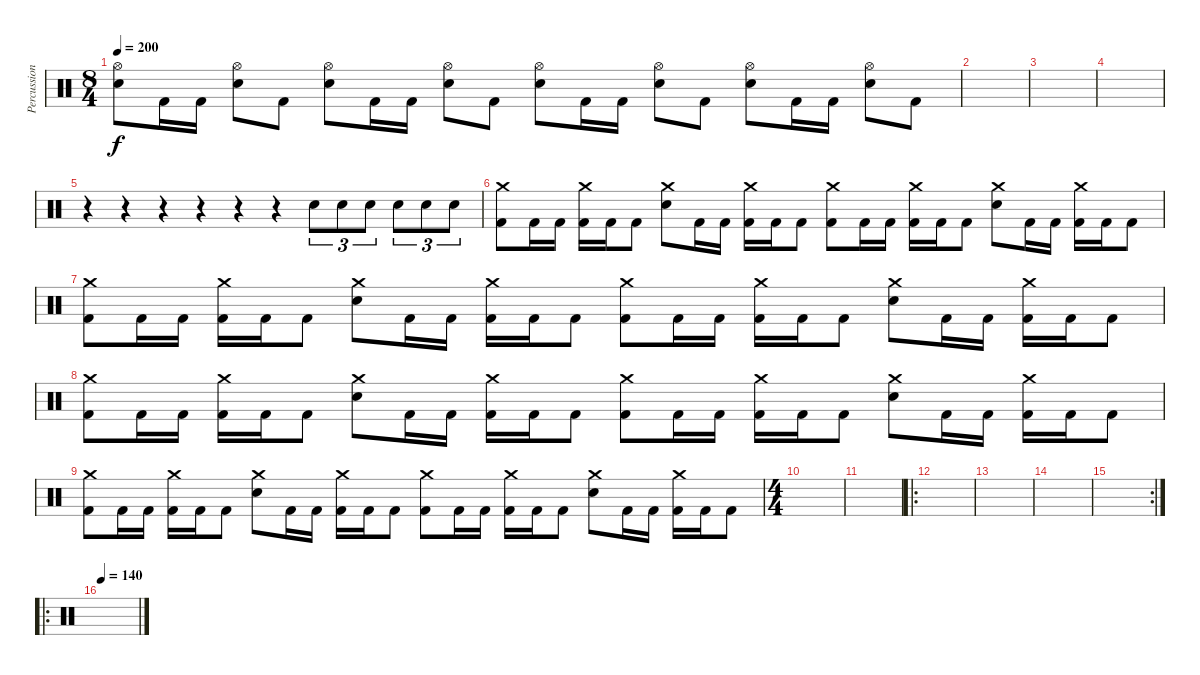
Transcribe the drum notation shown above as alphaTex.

\track ("Percussion" "Percussion") {instrument percussion}
\staff {score}
\articulation defaults
\ts (8 4)
\tempo 200
\clef neutral
\ks c
("Hi-Hat (open)" "Electric Snare (hit)").8{dy f} "Kick (hit) 2".16 "Kick (hit) 2".16 ("Hi-Hat (open)" "Electric Snare (hit)").8 "Kick (hit) 2".8 ("Hi-Hat (open)" "Electric Snare (hit)").8 "Kick (hit) 2".16 "Kick (hit) 2".16 ("Hi-Hat (open)" "Electric Snare (hit)").8 "Kick (hit) 2".8 ("Hi-Hat (open)" "Electric Snare (hit)").8 "Kick (hit) 2".16 "Kick (hit) 2".16 ("Hi-Hat (open)" "Electric Snare (hit)").8 "Kick (hit) 2".8 ("Hi-Hat (open)" "Electric Snare (hit)").8 "Kick (hit) 2".16 "Kick (hit) 2".16 ("Hi-Hat (open)" "Electric Snare (hit)").8 "Kick (hit) 2".8 |
|
|
|
r.4 r.4 r.4 r.4 r.4 r.4 "Electric Snare (hit)".8{tu (3 2)} "Electric Snare (hit)".8{tu (3 2)} "Electric Snare (hit)".8{tu (3 2)} "Electric Snare (hit)".8{tu (3 2)} "Electric Snare (hit)".8{tu (3 2)} "Electric Snare (hit)".8{tu (3 2)} |
("Crash medium (hit)" "Kick (hit) 2").8 "Kick (hit) 2".16 "Kick (hit) 2".16 ("Crash medium (hit)" "Kick (hit) 2").16 "Kick (hit) 2".16 "Kick (hit) 2".8 ("Crash medium (hit)" "Snare (hit) 2").8 "Kick (hit) 2".16 "Kick (hit) 2".16 ("Crash medium (hit)" "Kick (hit) 2").16 "Kick (hit) 2".16 "Kick (hit) 2".8 ("Crash medium (hit)" "Kick (hit) 2").8 "Kick (hit) 2".16 "Kick (hit) 2".16 ("Crash medium (hit)" "Kick (hit) 2").16 "Kick (hit) 2".16 "Kick (hit) 2".8 ("Crash medium (hit)" "Snare (hit) 2").8 "Kick (hit) 2".16 "Kick (hit) 2".16 ("Crash medium (hit)" "Kick (hit) 2").16 "Kick (hit) 2".16 "Kick (hit) 2".8 |
("Crash medium (hit)" "Kick (hit) 2").8 "Kick (hit) 2".16 "Kick (hit) 2".16 ("Crash medium (hit)" "Kick (hit) 2").16 "Kick (hit) 2".16 "Kick (hit) 2".8 ("Crash medium (hit)" "Snare (hit) 2").8 "Kick (hit) 2".16 "Kick (hit) 2".16 ("Crash medium (hit)" "Kick (hit) 2").16 "Kick (hit) 2".16 "Kick (hit) 2".8 ("Crash medium (hit)" "Kick (hit) 2").8 "Kick (hit) 2".16 "Kick (hit) 2".16 ("Crash medium (hit)" "Kick (hit) 2").16 "Kick (hit) 2".16 "Kick (hit) 2".8 ("Crash medium (hit)" "Snare (hit) 2").8 "Kick (hit) 2".16 "Kick (hit) 2".16 ("Crash medium (hit)" "Kick (hit) 2").16 "Kick (hit) 2".16 "Kick (hit) 2".8 |
("Crash medium (hit)" "Kick (hit) 2").8 "Kick (hit) 2".16 "Kick (hit) 2".16 ("Crash medium (hit)" "Kick (hit) 2").16 "Kick (hit) 2".16 "Kick (hit) 2".8 ("Crash medium (hit)" "Snare (hit) 2").8 "Kick (hit) 2".16 "Kick (hit) 2".16 ("Crash medium (hit)" "Kick (hit) 2").16 "Kick (hit) 2".16 "Kick (hit) 2".8 ("Crash medium (hit)" "Kick (hit) 2").8 "Kick (hit) 2".16 "Kick (hit) 2".16 ("Crash medium (hit)" "Kick (hit) 2").16 "Kick (hit) 2".16 "Kick (hit) 2".8 ("Crash medium (hit)" "Snare (hit) 2").8 "Kick (hit) 2".16 "Kick (hit) 2".16 ("Crash medium (hit)" "Kick (hit) 2").16 "Kick (hit) 2".16 "Kick (hit) 2".8 |
("Crash medium (hit)" "Kick (hit) 2").8 "Kick (hit) 2".16 "Kick (hit) 2".16 ("Crash medium (hit)" "Kick (hit) 2").16 "Kick (hit) 2".16 "Kick (hit) 2".8 ("Crash medium (hit)" "Snare (hit) 2").8 "Kick (hit) 2".16 "Kick (hit) 2".16 ("Crash medium (hit)" "Kick (hit) 2").16 "Kick (hit) 2".16 "Kick (hit) 2".8 ("Crash medium (hit)" "Kick (hit) 2").8 "Kick (hit) 2".16 "Kick (hit) 2".16 ("Crash medium (hit)" "Kick (hit) 2").16 "Kick (hit) 2".16 "Kick (hit) 2".8 ("Crash medium (hit)" "Snare (hit) 2").8 "Kick (hit) 2".16 "Kick (hit) 2".16 ("Crash medium (hit)" "Kick (hit) 2").16 "Kick (hit) 2".16 "Kick (hit) 2".8 |
\ts (4 4)
|
|
\ro
|
|
|
\rc 2
|
\ro
\tempo 140
